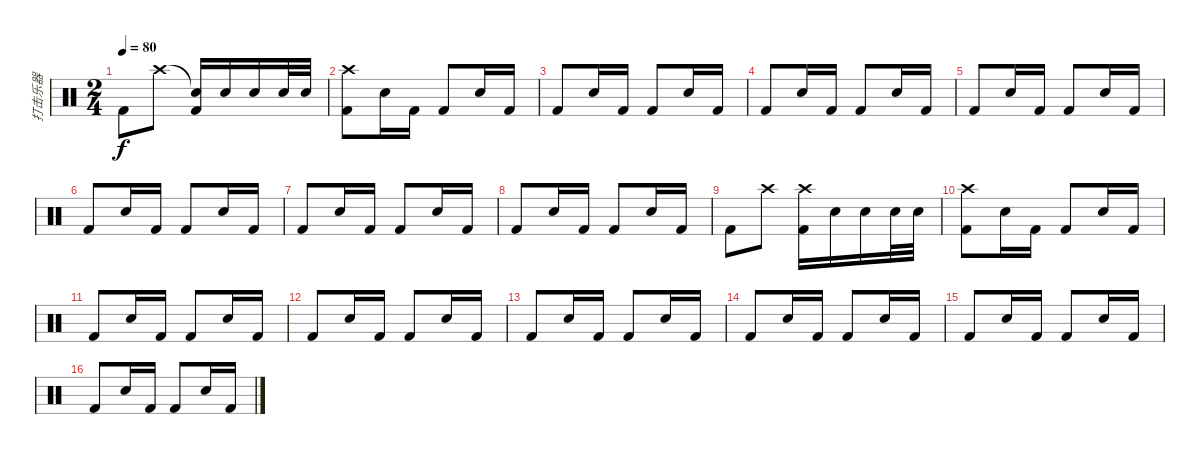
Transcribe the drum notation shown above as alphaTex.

\track ("打击乐器" "打击乐器") {instrument percussion}
\staff {score}
\articulation defaults
\ts (2 4)
\tempo 80
\clef neutral
\ks c "Kick (hit) 2".8{dy f} "Crash high (hit)".8
("Snare (hit)"{t} "Kick (hit) 2").16 "Snare (hit) 2".16 "Snare (hit) 2".16 "Snare (hit) 2".32 "Snare (hit) 2".32 |
("Crash high (hit)" "Kick (hit) 2").8 "Electric Snare (hit)".16 "Kick (hit) 2".16 "Kick (hit) 2".8 "Electric Snare (hit)".16 "Kick (hit) 2".16 |
"Kick (hit) 2".8 "Electric Snare (hit)".16 "Kick (hit) 2".16 "Kick (hit) 2".8 "Electric Snare (hit)".16 "Kick (hit) 2".16 |
"Kick (hit) 2".8 "Electric Snare (hit)".16 "Kick (hit) 2".16 "Kick (hit) 2".8 "Electric Snare (hit)".16 "Kick (hit) 2".16 |
"Kick (hit) 2".8 "Electric Snare (hit)".16 "Kick (hit) 2".16 "Kick (hit) 2".8 "Electric Snare (hit)".16 "Kick (hit) 2".16 |
"Kick (hit) 2".8 "Electric Snare (hit)".16 "Kick (hit) 2".16 "Kick (hit) 2".8 "Electric Snare (hit)".16 "Kick (hit) 2".16 |
"Kick (hit) 2".8 "Electric Snare (hit)".16 "Kick (hit) 2".16 "Kick (hit) 2".8 "Electric Snare (hit)".16 "Kick (hit) 2".16 |
"Kick (hit) 2".8 "Electric Snare (hit)".16 "Kick (hit) 2".16 "Kick (hit) 2".8 "Electric Snare (hit)".16 "Kick (hit) 2".16 |
"Kick (hit) 2".8 "Crash high (hit)".8 ("Crash high (hit)" "Kick (hit) 2").16 "Snare (hit) 2".16 "Snare (hit) 2".16 "Snare (hit) 2".32 "Snare (hit) 2".32 |
("Crash high (hit)" "Kick (hit) 2").8 "Electric Snare (hit)".16 "Kick (hit) 2".16 "Kick (hit) 2".8 "Electric Snare (hit)".16 "Kick (hit) 2".16 |
"Kick (hit) 2".8 "Electric Snare (hit)".16 "Kick (hit) 2".16 "Kick (hit) 2".8 "Electric Snare (hit)".16 "Kick (hit) 2".16 |
"Kick (hit) 2".8 "Electric Snare (hit)".16 "Kick (hit) 2".16 "Kick (hit) 2".8 "Electric Snare (hit)".16 "Kick (hit) 2".16 |
"Kick (hit) 2".8 "Electric Snare (hit)".16 "Kick (hit) 2".16 "Kick (hit) 2".8 "Electric Snare (hit)".16 "Kick (hit) 2".16 |
"Kick (hit) 2".8 "Electric Snare (hit)".16 "Kick (hit) 2".16 "Kick (hit) 2".8 "Electric Snare (hit)".16 "Kick (hit) 2".16 |
"Kick (hit) 2".8 "Electric Snare (hit)".16 "Kick (hit) 2".16 "Kick (hit) 2".8 "Electric Snare (hit)".16 "Kick (hit) 2".16 |
"Kick (hit) 2".8 "Electric Snare (hit)".16 "Kick (hit) 2".16 "Kick (hit) 2".8 "Electric Snare (hit)".16 "Kick (hit) 2".16
